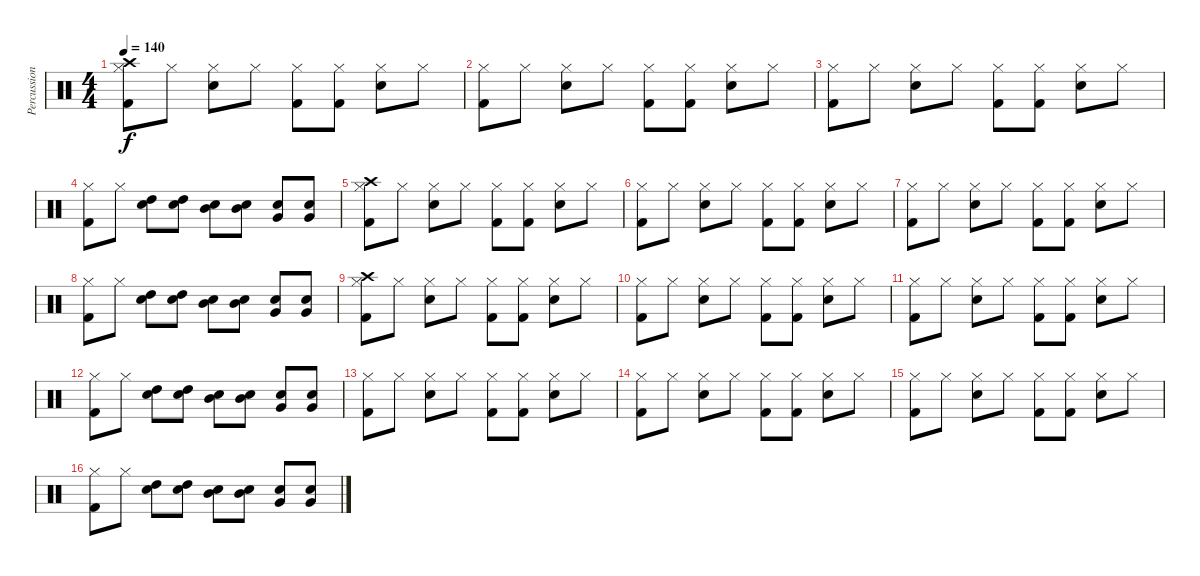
\track ("Percussion" "Percussion") {instrument percussion}
\staff {score}
\articulation defaults
\ts (4 4)
\tempo 140
\clef neutral
\ks c
("Kick (hit) 2" "Hi-Hat (closed)" "Crash high (hit)").8{dy f} "Hi-Hat (closed)".8 ("Electric Snare (hit)" "Hi-Hat (closed)").8 "Hi-Hat (closed)".8 ("Kick (hit) 2" "Hi-Hat (closed)").8 ("Kick (hit) 2" "Hi-Hat (closed)").8 ("Electric Snare (hit)" "Hi-Hat (closed)").8 "Hi-Hat (closed)".8 |
("Kick (hit) 2" "Hi-Hat (closed)").8 "Hi-Hat (closed)".8 ("Electric Snare (hit)" "Hi-Hat (closed)").8 "Hi-Hat (closed)".8 ("Kick (hit) 2" "Hi-Hat (closed)").8 ("Kick (hit) 2" "Hi-Hat (closed)").8 ("Electric Snare (hit)" "Hi-Hat (closed)").8 "Hi-Hat (closed)".8 |
("Kick (hit) 2" "Hi-Hat (closed)").8 "Hi-Hat (closed)".8 ("Electric Snare (hit)" "Hi-Hat (closed)").8 "Hi-Hat (closed)".8 ("Kick (hit) 2" "Hi-Hat (closed)").8 ("Kick (hit) 2" "Hi-Hat (closed)").8 ("Electric Snare (hit)" "Hi-Hat (closed)").8 "Hi-Hat (closed)".8 |
("Kick (hit) 2" "Hi-Hat (closed)").8 "Hi-Hat (closed)".8 ("Electric Snare (hit)" "High Tom (hit)").8 ("Electric Snare (hit)" "High Tom (hit)").8 ("Electric Snare (hit)" "Mid Tom (hit)").8 ("Electric Snare (hit)" "Mid Tom (hit)").8 ("Electric Snare (hit)" "Very Low Tom (hit)").8 ("Electric Snare (hit)" "Very Low Tom (hit)").8 |
("Kick (hit) 2" "Hi-Hat (closed)" "Crash high (hit)").8 "Hi-Hat (closed)".8 ("Electric Snare (hit)" "Hi-Hat (closed)").8 "Hi-Hat (closed)".8 ("Kick (hit) 2" "Hi-Hat (closed)").8 ("Kick (hit) 2" "Hi-Hat (closed)").8 ("Electric Snare (hit)" "Hi-Hat (closed)").8 "Hi-Hat (closed)".8 |
("Kick (hit) 2" "Hi-Hat (closed)").8 "Hi-Hat (closed)".8 ("Electric Snare (hit)" "Hi-Hat (closed)").8 "Hi-Hat (closed)".8 ("Kick (hit) 2" "Hi-Hat (closed)").8 ("Kick (hit) 2" "Hi-Hat (closed)").8 ("Electric Snare (hit)" "Hi-Hat (closed)").8 "Hi-Hat (closed)".8 |
("Kick (hit) 2" "Hi-Hat (closed)").8 "Hi-Hat (closed)".8 ("Electric Snare (hit)" "Hi-Hat (closed)").8 "Hi-Hat (closed)".8 ("Kick (hit) 2" "Hi-Hat (closed)").8 ("Kick (hit) 2" "Hi-Hat (closed)").8 ("Electric Snare (hit)" "Hi-Hat (closed)").8 "Hi-Hat (closed)".8 |
("Kick (hit) 2" "Hi-Hat (closed)").8 "Hi-Hat (closed)".8 ("Electric Snare (hit)" "High Tom (hit)").8 ("Electric Snare (hit)" "High Tom (hit)").8 ("Electric Snare (hit)" "Mid Tom (hit)").8 ("Electric Snare (hit)" "Mid Tom (hit)").8 ("Electric Snare (hit)" "Very Low Tom (hit)").8 ("Electric Snare (hit)" "Very Low Tom (hit)").8 |
("Kick (hit) 2" "Hi-Hat (closed)" "Crash high (hit)").8 "Hi-Hat (closed)".8 ("Electric Snare (hit)" "Hi-Hat (closed)").8 "Hi-Hat (closed)".8 ("Kick (hit) 2" "Hi-Hat (closed)").8 ("Kick (hit) 2" "Hi-Hat (closed)").8 ("Electric Snare (hit)" "Hi-Hat (closed)").8 "Hi-Hat (closed)".8 |
("Kick (hit) 2" "Hi-Hat (closed)").8 "Hi-Hat (closed)".8 ("Electric Snare (hit)" "Hi-Hat (closed)").8 "Hi-Hat (closed)".8 ("Kick (hit) 2" "Hi-Hat (closed)").8 ("Kick (hit) 2" "Hi-Hat (closed)").8 ("Electric Snare (hit)" "Hi-Hat (closed)").8 "Hi-Hat (closed)".8 |
("Kick (hit) 2" "Hi-Hat (closed)").8 "Hi-Hat (closed)".8 ("Electric Snare (hit)" "Hi-Hat (closed)").8 "Hi-Hat (closed)".8 ("Kick (hit) 2" "Hi-Hat (closed)").8 ("Kick (hit) 2" "Hi-Hat (closed)").8 ("Electric Snare (hit)" "Hi-Hat (closed)").8 "Hi-Hat (closed)".8 |
("Kick (hit) 2" "Hi-Hat (closed)").8 "Hi-Hat (closed)".8 ("Electric Snare (hit)" "High Tom (hit)").8 ("Electric Snare (hit)" "High Tom (hit)").8 ("Electric Snare (hit)" "Mid Tom (hit)").8 ("Electric Snare (hit)" "Mid Tom (hit)").8 ("Electric Snare (hit)" "Very Low Tom (hit)").8 ("Electric Snare (hit)" "Very Low Tom (hit)").8 |
("Kick (hit) 2" "Hi-Hat (closed)").8 "Hi-Hat (closed)".8 ("Electric Snare (hit)" "Hi-Hat (closed)").8 "Hi-Hat (closed)".8 ("Kick (hit) 2" "Hi-Hat (closed)").8 ("Kick (hit) 2" "Hi-Hat (closed)").8 ("Electric Snare (hit)" "Hi-Hat (closed)").8 "Hi-Hat (closed)".8 |
("Kick (hit) 2" "Hi-Hat (closed)").8 "Hi-Hat (closed)".8 ("Electric Snare (hit)" "Hi-Hat (closed)").8 "Hi-Hat (closed)".8 ("Kick (hit) 2" "Hi-Hat (closed)").8 ("Kick (hit) 2" "Hi-Hat (closed)").8 ("Electric Snare (hit)" "Hi-Hat (closed)").8 "Hi-Hat (closed)".8 |
("Kick (hit) 2" "Hi-Hat (closed)").8 "Hi-Hat (closed)".8 ("Electric Snare (hit)" "Hi-Hat (closed)").8 "Hi-Hat (closed)".8 ("Kick (hit) 2" "Hi-Hat (closed)").8 ("Kick (hit) 2" "Hi-Hat (closed)").8 ("Electric Snare (hit)" "Hi-Hat (closed)").8 "Hi-Hat (closed)".8 |
("Kick (hit) 2" "Hi-Hat (closed)").8 "Hi-Hat (closed)".8 ("Electric Snare (hit)" "High Tom (hit)").8 ("Electric Snare (hit)" "High Tom (hit)").8 ("Electric Snare (hit)" "Mid Tom (hit)").8 ("Electric Snare (hit)" "Mid Tom (hit)").8 ("Electric Snare (hit)" "Very Low Tom (hit)").8 ("Electric Snare (hit)" "Very Low Tom (hit)").8
